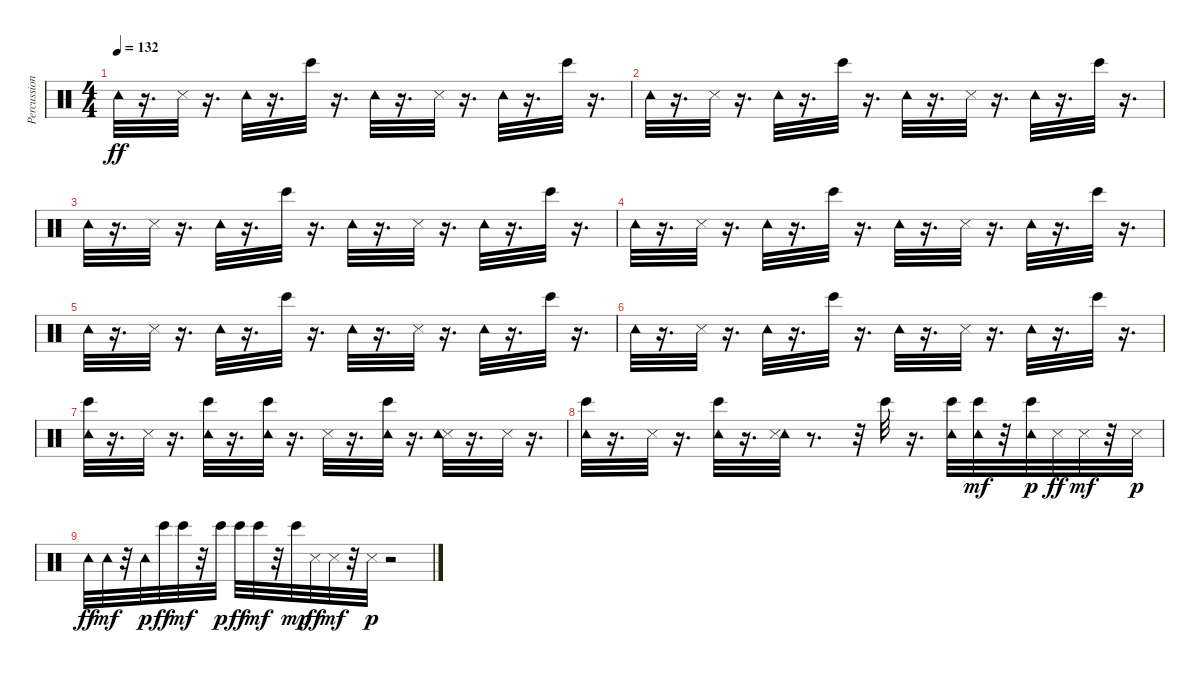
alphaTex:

\track ("Percussion 2" "Percussion") {instrument percussion}
\staff {score}
\articulation defaults
\ts (4 4)
\tempo 132
\clef neutral
\ks c "Tambourine (hit)".32{dy ff}
r.16{d} "Metronome (hit)".32 r.16{d} "Tambourine (hit)".32 r.16{d} "Bongo High (hit)".32 r.16{d} "Tambourine (hit)".32 r.16{d} "Metronome (hit)".32 r.16{d} "Tambourine (hit)".32 r.16{d} "Bongo High (hit)".32 r.16{d} |
"Tambourine (hit)".32 r.16{d} "Metronome (hit)".32 r.16{d} "Tambourine (hit)".32 r.16{d} "Bongo High (hit)".32 r.16{d} "Tambourine (hit)".32 r.16{d} "Metronome (hit)".32 r.16{d} "Tambourine (hit)".32 r.16{d} "Bongo High (hit)".32 r.16{d} |
"Tambourine (hit)".32 r.16{d} "Metronome (hit)".32 r.16{d} "Tambourine (hit)".32 r.16{d} "Bongo High (hit)".32 r.16{d} "Tambourine (hit)".32 r.16{d} "Metronome (hit)".32 r.16{d} "Tambourine (hit)".32 r.16{d} "Bongo High (hit)".32 r.16{d} |
"Tambourine (hit)".32 r.16{d} "Metronome (hit)".32 r.16{d} "Tambourine (hit)".32 r.16{d} "Bongo High (hit)".32 r.16{d} "Tambourine (hit)".32 r.16{d} "Metronome (hit)".32 r.16{d} "Tambourine (hit)".32 r.16{d} "Bongo High (hit)".32 r.16{d} |
"Tambourine (hit)".32 r.16{d} "Metronome (hit)".32 r.16{d} "Tambourine (hit)".32 r.16{d} "Bongo High (hit)".32 r.16{d} "Tambourine (hit)".32 r.16{d} "Metronome (hit)".32 r.16{d} "Tambourine (hit)".32 r.16{d} "Bongo High (hit)".32 r.16{d} |
"Tambourine (hit)".32 r.16{d} "Metronome (hit)".32 r.16{d} "Tambourine (hit)".32 r.16{d} "Bongo High (hit)".32 r.16{d} "Tambourine (hit)".32 r.16{d} "Metronome (hit)".32 r.16{d} "Tambourine (hit)".32 r.16{d} "Bongo High (hit)".32 r.16{d} |
("Bongo High (hit)" "Tambourine (hit)").32 r.16{d} "Metronome (hit)".32 r.16{d} ("Bongo High (hit)" "Tambourine (hit)").32 r.16{d} ("Bongo High (hit)" "Tambourine (hit)").32 r.16{d} "Metronome (hit)".32 r.16{d} ("Bongo High (hit)" "Tambourine (hit)").32 r.16{d} ("Metronome (hit)" "Tambourine (hit)").32 r.16{d} "Metronome (hit)".32 r.16{d} |
("Bongo High (hit)" "Tambourine (hit)").32 r.16{d} "Metronome (hit)".32 r.16{d} ("Tambourine (hit)" "Bongo High (hit)").32 r.16{d} ("Tambourine (hit)" "Metronome (hit)").32 r.8{d} r.32 "Bongo High (hit)".32 r.16{d} ("Tambourine (hit)" "Bongo High (hit)").32 ("Tambourine (hit)" "Bongo High (hit)").32{dy mf} r.32 ("Tambourine (hit)" "Bongo High (hit)").32{dy p} "Metronome (hit)".32{dy ff} "Metronome (hit)".32{dy mf} r.32 "Metronome (hit)".32{dy p} |
"Tambourine (hit)".32{dy ff} "Tambourine (hit)".32{dy mf} r.32 "Tambourine (hit)".32{dy p} "Bongo High (hit)".32{dy ff} "Bongo High (hit)".32{dy mf} r.32 "Bongo High (hit)".32{dy p} "Bongo High (hit)".32{dy ff} "Bongo High (hit)".32{dy mf} r.32 "Bongo High (hit)".32{dy mp} "Metronome (hit)".32{dy ff} "Metronome (hit)".32{dy mf} r.32 "Metronome (hit)".32{dy p} r.2
